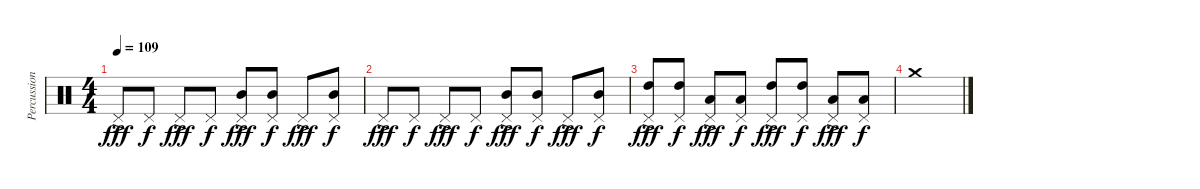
\track ("Percussions" "Percussion") {instrument percussion}
\staff {score}
\articulation defaults
\ts (4 4)
\tempo 109
\clef neutral
\ks c "Pedal Hi-Hat (hit)"{ac}.8{dy fff} "Pedal Hi-Hat (hit)".8{dy f} "Pedal Hi-Hat (hit)"{ac}.8{dy fff} "Pedal Hi-Hat (hit)".8{dy f}
("Pedal Hi-Hat (hit)"{ac} "Mid Tom (hit)").8{dy fff} ("Pedal Hi-Hat (hit)" "Mid Tom (hit)").8{dy f} "Pedal Hi-Hat (hit)"{ac}.8{dy fff} ("Pedal Hi-Hat (hit)" "Mid Tom (hit)").8{dy f} |
"Pedal Hi-Hat (hit)"{ac}.8{dy fff} "Pedal Hi-Hat (hit)".8{dy f} "Pedal Hi-Hat (hit)"{ac}.8{dy fff} "Pedal Hi-Hat (hit)".8{dy f} ("Pedal Hi-Hat (hit)"{ac} "Mid Tom (hit)").8{dy fff} ("Pedal Hi-Hat (hit)" "Mid Tom (hit)").8{dy f} "Pedal Hi-Hat (hit)"{ac}.8{dy fff} ("Pedal Hi-Hat (hit)" "Mid Tom (hit)").8{dy f} |
("Pedal Hi-Hat (hit)"{ac} "High Tom (hit)").8{dy fff} ("Pedal Hi-Hat (hit)" "High Tom (hit)").8{dy f} ("Pedal Hi-Hat (hit)"{ac} "Low Tom (hit)").8{dy fff} ("Pedal Hi-Hat (hit)" "Low Tom (hit)").8{dy f} ("Pedal Hi-Hat (hit)"{ac} "High Tom (hit)").8{dy fff} ("Pedal Hi-Hat (hit)" "High Tom (hit)").8{dy f} ("Pedal Hi-Hat (hit)"{ac} "Low Tom (hit)").8{dy fff} ("Pedal Hi-Hat (hit)" "Low Tom (hit)").8{dy f} |
"Crash medium (hit)".1
